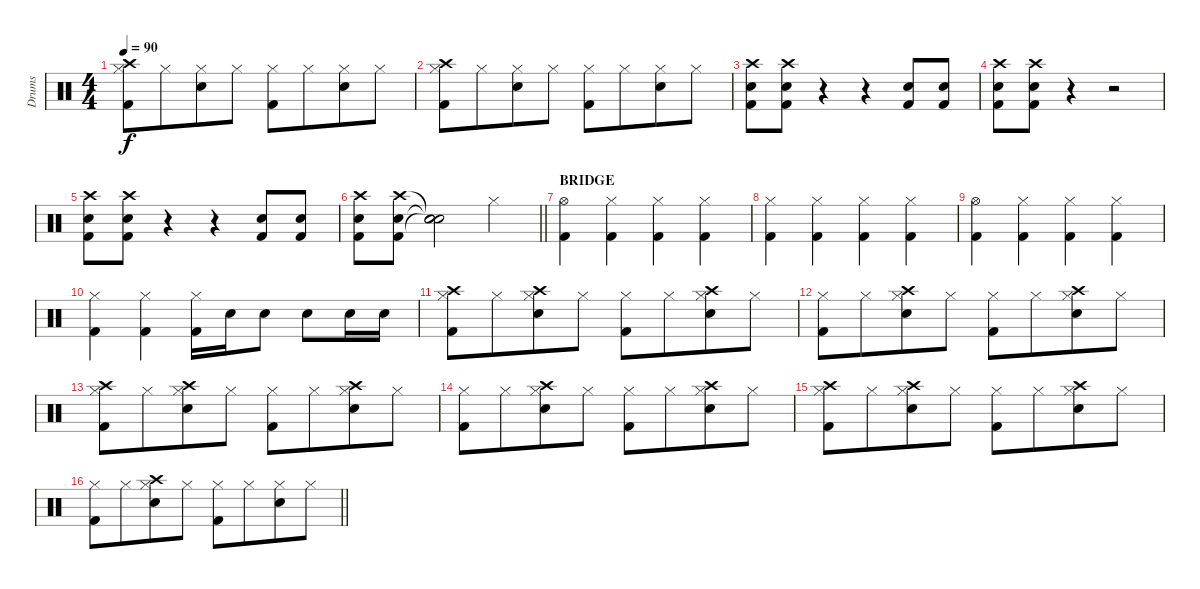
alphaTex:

\track ("Drums" "Drums") {instrument percussion}
\staff {score}
\articulation defaults
\ts (4 4)
\tempo 90
\clef neutral
\ks c
("Crash high (hit)" "Hi-Hat (closed)" "Kick (hit) 2").8{dy f} "Hi-Hat (closed)".8{beam merge} ("Hi-Hat (closed)" "Electric Snare (hit)").8 "Hi-Hat (closed)".8 ("Hi-Hat (closed)" "Kick (hit) 2").8 "Hi-Hat (closed)".8{beam merge} ("Hi-Hat (closed)" "Electric Snare (hit)").8 "Hi-Hat (closed)".8 |
("Crash high (hit)" "Hi-Hat (closed)" "Kick (hit) 2").8 "Hi-Hat (closed)".8{beam merge} ("Hi-Hat (closed)" "Electric Snare (hit)").8 "Hi-Hat (closed)".8 ("Hi-Hat (closed)" "Kick (hit) 2").8 "Hi-Hat (closed)".8{beam merge} ("Hi-Hat (closed)" "Electric Snare (hit)").8 "Hi-Hat (closed)".8 |
("Crash high (hit)" "Electric Snare (hit)" "Kick (hit) 2").8 ("Crash high (hit)" "Electric Snare (hit)" "Kick (hit) 2").8 r.4 r.4 ("Electric Snare (hit)" "Kick (hit) 2").8 ("Electric Snare (hit)" "Kick (hit) 2").8 |
("Crash high (hit)" "Electric Snare (hit)" "Kick (hit) 2").8 ("Crash high (hit)" "Electric Snare (hit)" "Kick (hit) 2").8 r.4 r.2 |
("Crash high (hit)" "Electric Snare (hit)" "Kick (hit) 2").8 ("Crash high (hit)" "Electric Snare (hit)" "Kick (hit) 2").8 r.4 r.4 ("Electric Snare (hit)" "Kick (hit) 2").8 ("Electric Snare (hit)" "Kick (hit) 2").8 |
\barLineRight lightlight
("Crash high (hit)" "Electric Snare (hit)" "Kick (hit) 2").8 ("Crash high (hit)" "Electric Snare (hit)" "Kick (hit) 2").8 ("Snare (hit)"{t} "Snare (hit)"{t} "Snare (hit)"{t}).2 "Hi-Hat (closed)".4 |
\section ("" "BRIDGE")
("Hi-Hat (open)" "Kick (hit) 2").4 ("Hi-Hat (closed)" "Kick (hit) 2").4 ("Hi-Hat (closed)" "Kick (hit) 2").4 ("Hi-Hat (closed)" "Kick (hit) 2").4 |
("Hi-Hat (closed)" "Kick (hit) 2").4 ("Hi-Hat (closed)" "Kick (hit) 2").4 ("Hi-Hat (closed)" "Kick (hit) 2").4 ("Hi-Hat (closed)" "Kick (hit) 2").4 |
("Hi-Hat (open)" "Kick (hit) 2").4 ("Hi-Hat (closed)" "Kick (hit) 2").4 ("Hi-Hat (closed)" "Kick (hit) 2").4 ("Hi-Hat (closed)" "Kick (hit) 2").4 |
("Hi-Hat (closed)" "Kick (hit) 2").4 ("Hi-Hat (closed)" "Kick (hit) 2").4 ("Hi-Hat (closed)" "Kick (hit) 2").16 "Electric Snare (hit)".16 "Electric Snare (hit)".8 "Electric Snare (hit)".8 "Electric Snare (hit)".16 "Electric Snare (hit)".16 |
("Crash high (hit)" "Hi-Hat (closed)" "Kick (hit) 2").8 "Hi-Hat (closed)".8{beam merge} ("Crash high (hit)" "Hi-Hat (closed)" "Electric Snare (hit)").8 "Hi-Hat (closed)".8 ("Hi-Hat (closed)" "Kick (hit) 2").8 "Hi-Hat (closed)".8{beam merge} ("Crash high (hit)" "Hi-Hat (closed)" "Electric Snare (hit)").8 "Hi-Hat (closed)".8 |
("Hi-Hat (closed)" "Kick (hit) 2").8 "Hi-Hat (closed)".8{beam merge} ("Crash high (hit)" "Hi-Hat (closed)" "Electric Snare (hit)").8 "Hi-Hat (closed)".8 ("Hi-Hat (closed)" "Kick (hit) 2").8 "Hi-Hat (closed)".8{beam merge} ("Crash high (hit)" "Hi-Hat (closed)" "Electric Snare (hit)").8 "Hi-Hat (closed)".8 |
("Crash high (hit)" "Hi-Hat (closed)" "Kick (hit) 2").8 "Hi-Hat (closed)".8{beam merge} ("Crash high (hit)" "Hi-Hat (closed)" "Electric Snare (hit)").8 "Hi-Hat (closed)".8 ("Hi-Hat (closed)" "Kick (hit) 2").8 "Hi-Hat (closed)".8{beam merge} ("Crash high (hit)" "Hi-Hat (closed)" "Electric Snare (hit)").8 "Hi-Hat (closed)".8 |
("Hi-Hat (closed)" "Kick (hit) 2").8 "Hi-Hat (closed)".8{beam merge} ("Crash high (hit)" "Hi-Hat (closed)" "Electric Snare (hit)").8 "Hi-Hat (closed)".8 ("Hi-Hat (closed)" "Kick (hit) 2").8 "Hi-Hat (closed)".8{beam merge} ("Crash high (hit)" "Hi-Hat (closed)" "Electric Snare (hit)").8 "Hi-Hat (closed)".8 |
("Crash high (hit)" "Hi-Hat (closed)" "Kick (hit) 2").8 "Hi-Hat (closed)".8{beam merge} ("Crash high (hit)" "Hi-Hat (closed)" "Electric Snare (hit)").8 "Hi-Hat (closed)".8 ("Hi-Hat (closed)" "Kick (hit) 2").8 "Hi-Hat (closed)".8{beam merge} ("Crash high (hit)" "Hi-Hat (closed)" "Electric Snare (hit)").8 "Hi-Hat (closed)".8 |
\barLineRight lightlight
("Hi-Hat (closed)" "Kick (hit) 2").8 "Hi-Hat (closed)".8{beam merge} ("Crash high (hit)" "Hi-Hat (closed)" "Electric Snare (hit)").8 "Hi-Hat (closed)".8 ("Hi-Hat (closed)" "Kick (hit) 2").8 "Hi-Hat (closed)".8{beam merge} ("Hi-Hat (closed)" "Electric Snare (hit)").8 "Hi-Hat (closed)".8
